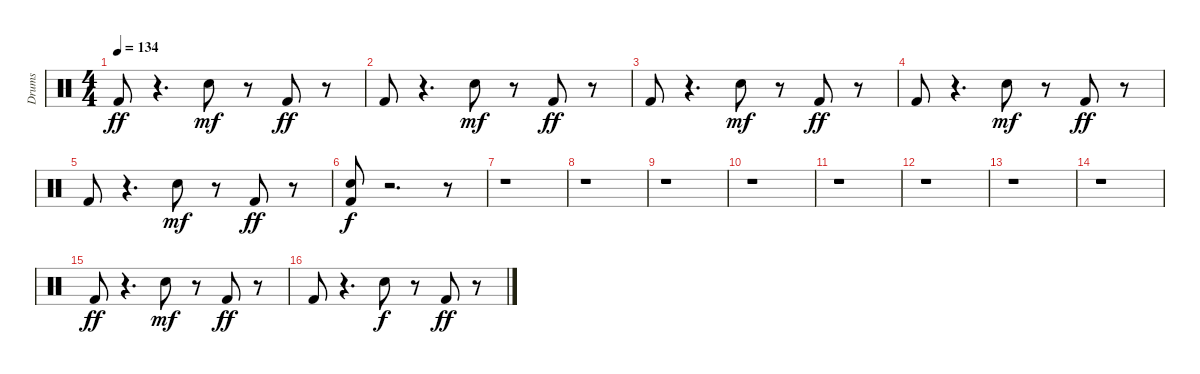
\track ("Drums" "Drums") {instrument percussion}
\staff {score}
\articulation defaults
\ts (4 4)
\tempo 134
\clef neutral
\ks c "Kick (hit) 2".8{dy ff}
r.4{d} "Electric Snare (hit)".8{dy mf} r.8 "Kick (hit) 2".8{dy ff} r.8 |
"Kick (hit) 2".8 r.4{d} "Electric Snare (hit)".8{dy mf} r.8 "Kick (hit) 2".8{dy ff} r.8 |
"Kick (hit) 2".8 r.4{d} "Electric Snare (hit)".8{dy mf} r.8 "Kick (hit) 2".8{dy ff} r.8 |
"Kick (hit) 2".8 r.4{d} "Electric Snare (hit)".8{dy mf} r.8 "Kick (hit) 2".8{dy ff} r.8 |
"Kick (hit) 2".8 r.4{d} "Electric Snare (hit)".8{dy mf} r.8 "Kick (hit) 2".8{dy ff} r.8 |
("Kick (hit) 2" "Electric Snare (hit)").8{dy f} r.2{d} r.8 |
r.1 |
r.1 |
r.1 |
r.1 |
r.1 |
r.1 |
r.1 |
r.1 |
"Kick (hit) 2".8{dy ff} r.4{d} "Electric Snare (hit)".8{dy mf} r.8 "Kick (hit) 2".8{dy ff} r.8 |
"Kick (hit) 2".8 r.4{d} "Electric Snare (hit)".8{dy f} r.8 "Kick (hit) 2".8{dy ff} r.8
